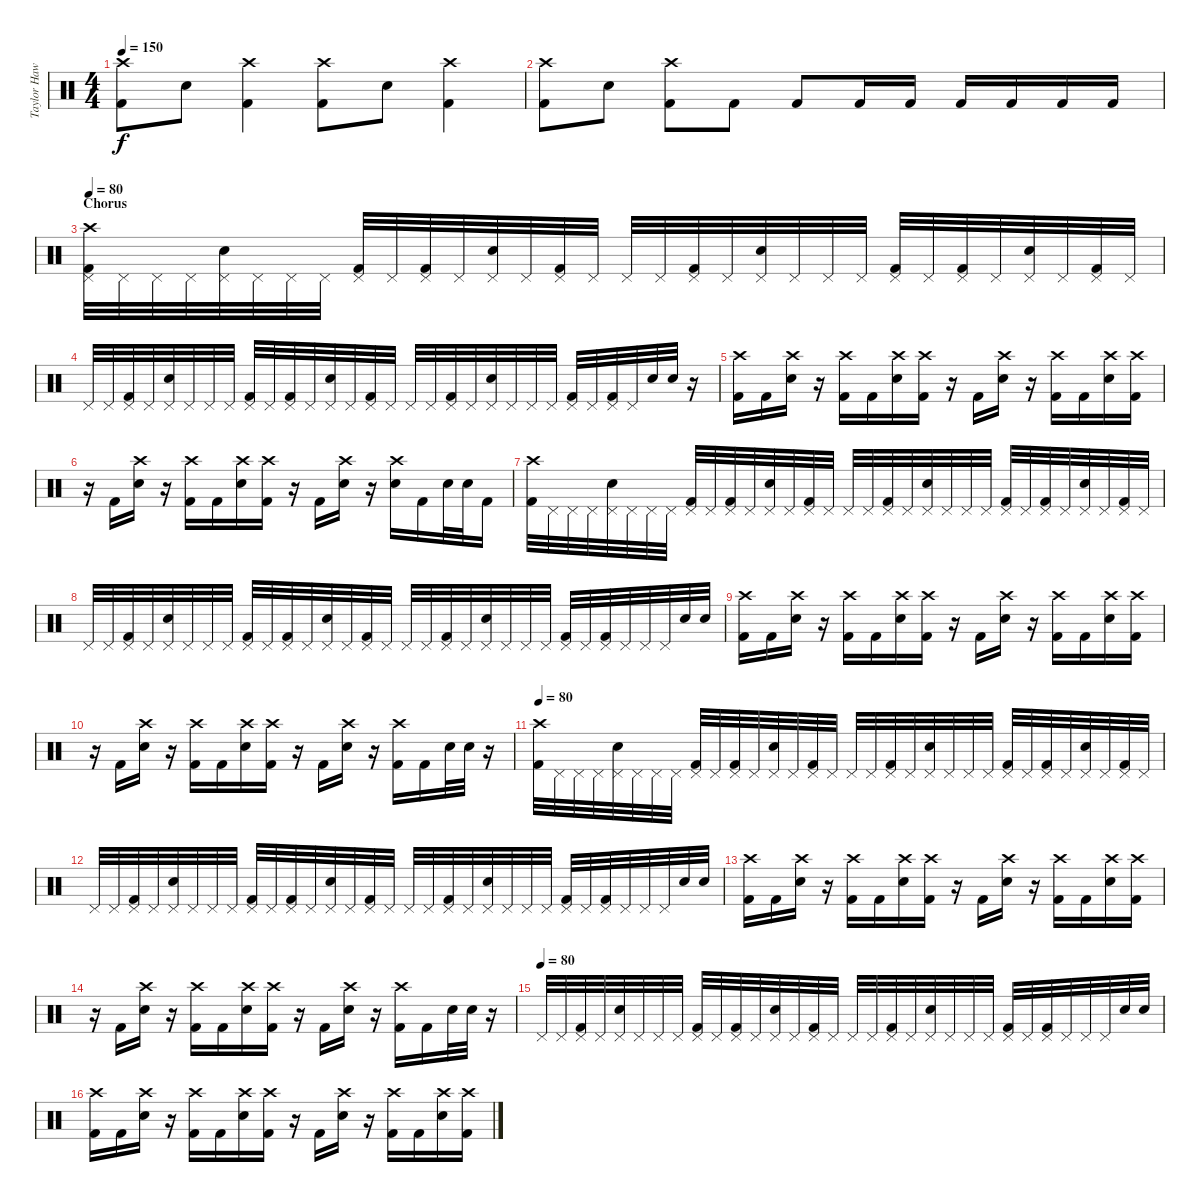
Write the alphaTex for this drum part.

\track ("Taylor Hawkins" "Taylor Haw") {instrument percussion}
\staff {score}
\articulation defaults
\ts (4 4)
\tempo 150
\clef neutral
\ks c
("Crash high (hit)" "Kick (hit) 2").8{dy f} "Snare (hit) 2".8 ("Crash high (hit)" "Kick (hit) 2").4 ("Crash high (hit)" "Kick (hit) 2").8 "Snare (hit) 2".8 ("Crash high (hit)" "Kick (hit) 2").4 |
("Crash high (hit)" "Kick (hit) 2").8 "Snare (hit) 2".8 ("Crash high (hit)" "Kick (hit) 2").8 "Kick (hit) 2".8 "Kick (hit) 2".8 "Kick (hit) 2".16 "Kick (hit) 2".16 "Kick (hit) 2".16 "Kick (hit) 2".16 "Kick (hit) 2".16 "Kick (hit) 2".16 |
\section ("" "Chorus")
\tempo 80
("Crash high (hit)" "Pedal Hi-Hat (hit)" "Kick (hit) 2").32 "Pedal Hi-Hat (hit)".32 "Pedal Hi-Hat (hit)".32 "Pedal Hi-Hat (hit)".32 ("Pedal Hi-Hat (hit)" "Snare (hit) 2").32 "Pedal Hi-Hat (hit)".32 "Pedal Hi-Hat (hit)".32 "Pedal Hi-Hat (hit)".32 ("Pedal Hi-Hat (hit)" "Kick (hit) 2").32 "Pedal Hi-Hat (hit)".32 ("Pedal Hi-Hat (hit)" "Kick (hit) 2").32 "Pedal Hi-Hat (hit)".32 ("Pedal Hi-Hat (hit)" "Snare (hit) 2").32 "Pedal Hi-Hat (hit)".32 ("Pedal Hi-Hat (hit)" "Kick (hit) 2").32 "Pedal Hi-Hat (hit)".32 "Pedal Hi-Hat (hit)".32 "Pedal Hi-Hat (hit)".32 ("Pedal Hi-Hat (hit)" "Kick (hit) 2").32 "Pedal Hi-Hat (hit)".32 ("Pedal Hi-Hat (hit)" "Snare (hit) 2").32 "Pedal Hi-Hat (hit)".32 "Pedal Hi-Hat (hit)".32 "Pedal Hi-Hat (hit)".32 ("Pedal Hi-Hat (hit)" "Kick (hit) 2").32 "Pedal Hi-Hat (hit)".32 ("Pedal Hi-Hat (hit)" "Kick (hit) 2").32 "Pedal Hi-Hat (hit)".32 ("Pedal Hi-Hat (hit)" "Snare (hit) 2").32 "Pedal Hi-Hat (hit)".32 ("Pedal Hi-Hat (hit)" "Kick (hit) 2").32 "Pedal Hi-Hat (hit)".32 |
"Pedal Hi-Hat (hit)".32 "Pedal Hi-Hat (hit)".32 ("Pedal Hi-Hat (hit)" "Kick (hit) 2").32 "Pedal Hi-Hat (hit)".32 ("Pedal Hi-Hat (hit)" "Snare (hit) 2").32 "Pedal Hi-Hat (hit)".32 "Pedal Hi-Hat (hit)".32 "Pedal Hi-Hat (hit)".32 ("Pedal Hi-Hat (hit)" "Kick (hit) 2").32 "Pedal Hi-Hat (hit)".32 ("Pedal Hi-Hat (hit)" "Kick (hit) 2").32 "Pedal Hi-Hat (hit)".32 ("Pedal Hi-Hat (hit)" "Snare (hit) 2").32 "Pedal Hi-Hat (hit)".32 ("Pedal Hi-Hat (hit)" "Kick (hit) 2").32 "Pedal Hi-Hat (hit)".32 "Pedal Hi-Hat (hit)".32 "Pedal Hi-Hat (hit)".32 ("Pedal Hi-Hat (hit)" "Kick (hit) 2").32 "Pedal Hi-Hat (hit)".32 ("Pedal Hi-Hat (hit)" "Snare (hit) 2").32 "Pedal Hi-Hat (hit)".32 "Pedal Hi-Hat (hit)".32 "Pedal Hi-Hat (hit)".32 ("Pedal Hi-Hat (hit)" "Kick (hit) 2").32 "Pedal Hi-Hat (hit)".32 ("Pedal Hi-Hat (hit)" "Kick (hit) 2").32 "Pedal Hi-Hat (hit)".32 "Snare (hit) 2".32 "Snare (hit) 2".32 r.16 |
("Crash high (hit)" "Kick (hit) 2").16 "Kick (hit) 2".16 ("Crash high (hit)" "Snare (hit) 2").16 r.16 ("Crash high (hit)" "Kick (hit) 2").16 "Kick (hit) 2".16 ("Crash high (hit)" "Snare (hit) 2").16 ("Crash high (hit)" "Kick (hit) 2").16 r.16 "Kick (hit) 2".16 ("Crash high (hit)" "Snare (hit) 2").16 r.16 ("Crash high (hit)" "Kick (hit) 2").16 "Kick (hit) 2".16 ("Crash high (hit)" "Snare (hit) 2").16 ("Crash high (hit)" "Kick (hit) 2").16 |
r.16 "Kick (hit) 2".16 ("Crash high (hit)" "Snare (hit) 2").16 r.16 ("Crash high (hit)" "Kick (hit) 2").16 "Kick (hit) 2".16 ("Crash high (hit)" "Snare (hit) 2").16 ("Crash high (hit)" "Kick (hit) 2").16 r.16 "Kick (hit) 2".16 ("Crash high (hit)" "Snare (hit) 2").16 r.16 ("Crash high (hit)" "Snare (hit) 2").16 "Kick (hit) 2".16 "Snare (hit) 2".32 "Snare (hit) 2".32 "Kick (hit) 2".16 |
("Crash high (hit)" "Kick (hit) 2").32 "Pedal Hi-Hat (hit)".32 "Pedal Hi-Hat (hit)".32 "Pedal Hi-Hat (hit)".32 ("Pedal Hi-Hat (hit)" "Snare (hit) 2").32 "Pedal Hi-Hat (hit)".32 "Pedal Hi-Hat (hit)".32 "Pedal Hi-Hat (hit)".32 ("Pedal Hi-Hat (hit)" "Kick (hit) 2").32 "Pedal Hi-Hat (hit)".32 ("Pedal Hi-Hat (hit)" "Kick (hit) 2").32 "Pedal Hi-Hat (hit)".32 ("Pedal Hi-Hat (hit)" "Snare (hit) 2").32 "Pedal Hi-Hat (hit)".32 ("Pedal Hi-Hat (hit)" "Kick (hit) 2").32 "Pedal Hi-Hat (hit)".32 "Pedal Hi-Hat (hit)".32 "Pedal Hi-Hat (hit)".32 ("Pedal Hi-Hat (hit)" "Kick (hit) 2").32 "Pedal Hi-Hat (hit)".32 ("Pedal Hi-Hat (hit)" "Snare (hit) 2").32 "Pedal Hi-Hat (hit)".32 "Pedal Hi-Hat (hit)".32 "Pedal Hi-Hat (hit)".32 ("Pedal Hi-Hat (hit)" "Kick (hit) 2").32 "Pedal Hi-Hat (hit)".32 ("Pedal Hi-Hat (hit)" "Kick (hit) 2").32 "Pedal Hi-Hat (hit)".32 ("Pedal Hi-Hat (hit)" "Snare (hit) 2").32 "Pedal Hi-Hat (hit)".32 ("Pedal Hi-Hat (hit)" "Kick (hit) 2").32 "Pedal Hi-Hat (hit)".32 |
"Pedal Hi-Hat (hit)".32 "Pedal Hi-Hat (hit)".32 ("Pedal Hi-Hat (hit)" "Kick (hit) 2").32 "Pedal Hi-Hat (hit)".32 ("Pedal Hi-Hat (hit)" "Snare (hit) 2").32 "Pedal Hi-Hat (hit)".32 "Pedal Hi-Hat (hit)".32 "Pedal Hi-Hat (hit)".32 ("Pedal Hi-Hat (hit)" "Kick (hit) 2").32 "Pedal Hi-Hat (hit)".32 ("Pedal Hi-Hat (hit)" "Kick (hit) 2").32 "Pedal Hi-Hat (hit)".32 ("Pedal Hi-Hat (hit)" "Snare (hit) 2").32 "Pedal Hi-Hat (hit)".32 ("Pedal Hi-Hat (hit)" "Kick (hit) 2").32 "Pedal Hi-Hat (hit)".32 "Pedal Hi-Hat (hit)".32 "Pedal Hi-Hat (hit)".32 ("Pedal Hi-Hat (hit)" "Kick (hit) 2").32 "Pedal Hi-Hat (hit)".32 ("Pedal Hi-Hat (hit)" "Snare (hit) 2").32 "Pedal Hi-Hat (hit)".32 "Pedal Hi-Hat (hit)".32 "Pedal Hi-Hat (hit)".32 ("Pedal Hi-Hat (hit)" "Kick (hit) 2").32 "Pedal Hi-Hat (hit)".32 ("Pedal Hi-Hat (hit)" "Kick (hit) 2").32 "Pedal Hi-Hat (hit)".32 "Pedal Hi-Hat (hit)".32 "Pedal Hi-Hat (hit)".32 "Snare (hit) 2".32 "Snare (hit) 2".32 |
("Crash high (hit)" "Kick (hit) 2").16 "Kick (hit) 2".16 ("Crash high (hit)" "Snare (hit) 2").16 r.16 ("Crash high (hit)" "Kick (hit) 2").16 "Kick (hit) 2".16 ("Crash high (hit)" "Snare (hit) 2").16 ("Crash high (hit)" "Kick (hit) 2").16 r.16 "Kick (hit) 2".16 ("Crash high (hit)" "Snare (hit) 2").16 r.16 ("Crash high (hit)" "Kick (hit) 2").16 "Kick (hit) 2".16 ("Crash high (hit)" "Snare (hit) 2").16 ("Crash high (hit)" "Kick (hit) 2").16 |
r.16 "Kick (hit) 2".16 ("Crash high (hit)" "Snare (hit) 2").16 r.16 ("Crash high (hit)" "Kick (hit) 2").16 "Kick (hit) 2".16 ("Crash high (hit)" "Snare (hit) 2").16 ("Crash high (hit)" "Kick (hit) 2").16 r.16 "Kick (hit) 2".16 ("Crash high (hit)" "Snare (hit) 2").16 r.16 ("Crash high (hit)" "Kick (hit) 2").16 "Kick (hit) 2".16 "Snare (hit) 2".32 "Snare (hit) 2".32 r.16 |
\tempo 80
("Crash high (hit)" "Kick (hit) 2").32 "Pedal Hi-Hat (hit)".32 "Pedal Hi-Hat (hit)".32 "Pedal Hi-Hat (hit)".32 ("Pedal Hi-Hat (hit)" "Snare (hit) 2").32 "Pedal Hi-Hat (hit)".32 "Pedal Hi-Hat (hit)".32 "Pedal Hi-Hat (hit)".32 ("Pedal Hi-Hat (hit)" "Kick (hit) 2").32 "Pedal Hi-Hat (hit)".32 ("Pedal Hi-Hat (hit)" "Kick (hit) 2").32 "Pedal Hi-Hat (hit)".32 ("Pedal Hi-Hat (hit)" "Snare (hit) 2").32 "Pedal Hi-Hat (hit)".32 ("Pedal Hi-Hat (hit)" "Kick (hit) 2").32 "Pedal Hi-Hat (hit)".32 "Pedal Hi-Hat (hit)".32 "Pedal Hi-Hat (hit)".32 ("Pedal Hi-Hat (hit)" "Kick (hit) 2").32 "Pedal Hi-Hat (hit)".32 ("Pedal Hi-Hat (hit)" "Snare (hit) 2").32 "Pedal Hi-Hat (hit)".32 "Pedal Hi-Hat (hit)".32 "Pedal Hi-Hat (hit)".32 ("Pedal Hi-Hat (hit)" "Kick (hit) 2").32 "Pedal Hi-Hat (hit)".32 ("Pedal Hi-Hat (hit)" "Kick (hit) 2").32 "Pedal Hi-Hat (hit)".32 ("Pedal Hi-Hat (hit)" "Snare (hit) 2").32 "Pedal Hi-Hat (hit)".32 ("Pedal Hi-Hat (hit)" "Kick (hit) 2").32 "Pedal Hi-Hat (hit)".32 |
"Pedal Hi-Hat (hit)".32 "Pedal Hi-Hat (hit)".32 ("Pedal Hi-Hat (hit)" "Kick (hit) 2").32 "Pedal Hi-Hat (hit)".32 ("Pedal Hi-Hat (hit)" "Snare (hit) 2").32 "Pedal Hi-Hat (hit)".32 "Pedal Hi-Hat (hit)".32 "Pedal Hi-Hat (hit)".32 ("Pedal Hi-Hat (hit)" "Kick (hit) 2").32 "Pedal Hi-Hat (hit)".32 ("Pedal Hi-Hat (hit)" "Kick (hit) 2").32 "Pedal Hi-Hat (hit)".32 ("Pedal Hi-Hat (hit)" "Snare (hit) 2").32 "Pedal Hi-Hat (hit)".32 ("Pedal Hi-Hat (hit)" "Kick (hit) 2").32 "Pedal Hi-Hat (hit)".32 "Pedal Hi-Hat (hit)".32 "Pedal Hi-Hat (hit)".32 ("Pedal Hi-Hat (hit)" "Kick (hit) 2").32 "Pedal Hi-Hat (hit)".32 ("Pedal Hi-Hat (hit)" "Snare (hit) 2").32 "Pedal Hi-Hat (hit)".32 "Pedal Hi-Hat (hit)".32 "Pedal Hi-Hat (hit)".32 ("Pedal Hi-Hat (hit)" "Kick (hit) 2").32 "Pedal Hi-Hat (hit)".32 ("Pedal Hi-Hat (hit)" "Kick (hit) 2").32 "Pedal Hi-Hat (hit)".32 "Pedal Hi-Hat (hit)".32 "Pedal Hi-Hat (hit)".32 "Snare (hit) 2".32 "Snare (hit) 2".32 |
("Crash high (hit)" "Kick (hit) 2").16 "Kick (hit) 2".16 ("Crash high (hit)" "Snare (hit) 2").16 r.16 ("Crash high (hit)" "Kick (hit) 2").16 "Kick (hit) 2".16 ("Crash high (hit)" "Snare (hit) 2").16 ("Crash high (hit)" "Kick (hit) 2").16 r.16 "Kick (hit) 2".16 ("Crash high (hit)" "Snare (hit) 2").16 r.16 ("Crash high (hit)" "Kick (hit) 2").16 "Kick (hit) 2".16 ("Crash high (hit)" "Snare (hit) 2").16 ("Crash high (hit)" "Kick (hit) 2").16 |
r.16 "Kick (hit) 2".16 ("Crash high (hit)" "Snare (hit) 2").16 r.16 ("Crash high (hit)" "Kick (hit) 2").16 "Kick (hit) 2".16 ("Crash high (hit)" "Snare (hit) 2").16 ("Crash high (hit)" "Kick (hit) 2").16 r.16 "Kick (hit) 2".16 ("Crash high (hit)" "Snare (hit) 2").16 r.16 ("Crash high (hit)" "Kick (hit) 2").16 "Kick (hit) 2".16 "Snare (hit) 2".32 "Snare (hit) 2".32 r.16 |
\tempo (80)
"Pedal Hi-Hat (hit)".32 "Pedal Hi-Hat (hit)".32 ("Pedal Hi-Hat (hit)" "Kick (hit) 2").32 "Pedal Hi-Hat (hit)".32 ("Pedal Hi-Hat (hit)" "Snare (hit) 2").32 "Pedal Hi-Hat (hit)".32 "Pedal Hi-Hat (hit)".32 "Pedal Hi-Hat (hit)".32 ("Pedal Hi-Hat (hit)" "Kick (hit) 2").32 "Pedal Hi-Hat (hit)".32 ("Pedal Hi-Hat (hit)" "Kick (hit) 2").32 "Pedal Hi-Hat (hit)".32 ("Pedal Hi-Hat (hit)" "Snare (hit) 2").32 "Pedal Hi-Hat (hit)".32 ("Pedal Hi-Hat (hit)" "Kick (hit) 2").32 "Pedal Hi-Hat (hit)".32 "Pedal Hi-Hat (hit)".32 "Pedal Hi-Hat (hit)".32 ("Pedal Hi-Hat (hit)" "Kick (hit) 2").32 "Pedal Hi-Hat (hit)".32 ("Pedal Hi-Hat (hit)" "Snare (hit) 2").32 "Pedal Hi-Hat (hit)".32 "Pedal Hi-Hat (hit)".32 "Pedal Hi-Hat (hit)".32 ("Pedal Hi-Hat (hit)" "Kick (hit) 2").32 "Pedal Hi-Hat (hit)".32 ("Pedal Hi-Hat (hit)" "Kick (hit) 2").32 "Pedal Hi-Hat (hit)".32 "Pedal Hi-Hat (hit)".32 "Pedal Hi-Hat (hit)".32 "Snare (hit) 2".32 "Snare (hit) 2".32 |
("Crash high (hit)" "Kick (hit) 2").16 "Kick (hit) 2".16 ("Crash high (hit)" "Snare (hit) 2").16 r.16 ("Crash high (hit)" "Kick (hit) 2").16 "Kick (hit) 2".16 ("Crash high (hit)" "Snare (hit) 2").16 ("Crash high (hit)" "Kick (hit) 2").16 r.16 "Kick (hit) 2".16 ("Crash high (hit)" "Snare (hit) 2").16 r.16 ("Crash high (hit)" "Kick (hit) 2").16 "Kick (hit) 2".16 ("Crash high (hit)" "Snare (hit) 2").16 ("Crash high (hit)" "Kick (hit) 2").16
